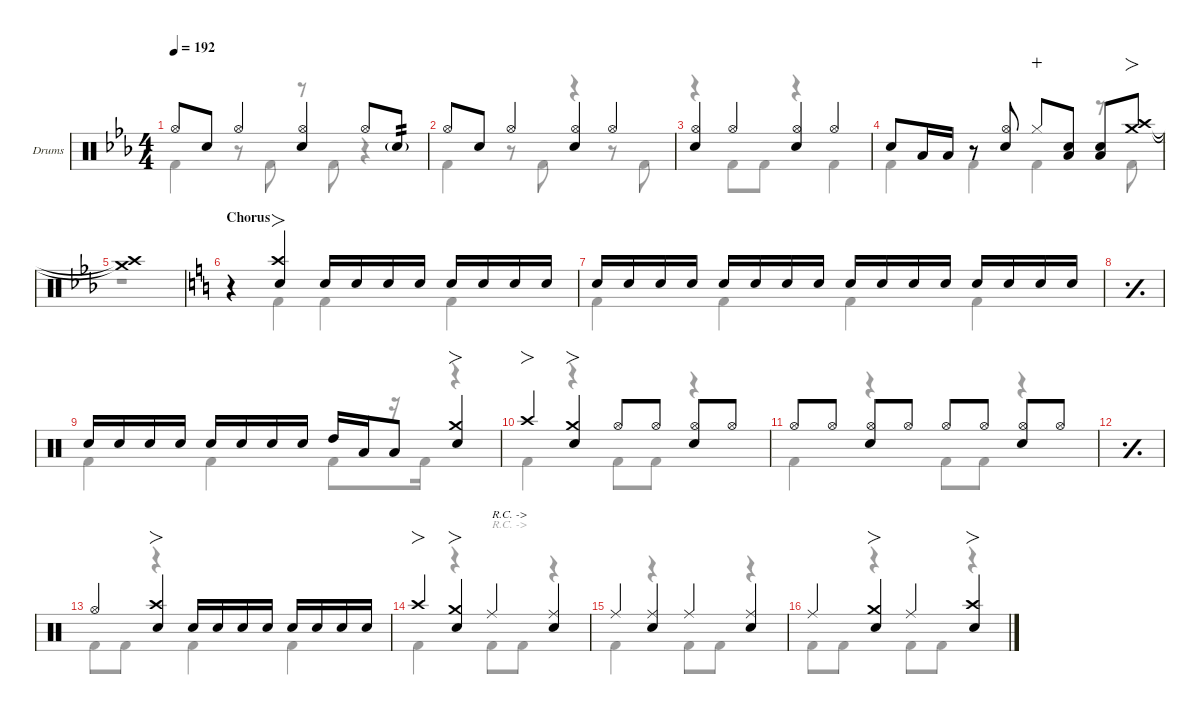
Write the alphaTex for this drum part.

\defaultSystemsLayout 4
\hideDynamics
\bracketExtendMode nobrackets
\firstSystemTrackNameOrientation horizontal
\track ("Drums" "Drums") {defaultSystemsLayout 4 instrument percussion}
\staff {score}
\articulation defaults
\voice
\ts (4 4)
\tempo 192
\clef neutral
\scale
0.244463
\ks eb "Hi-Hat (open)"{acc forcenatural}.8{dy f beam Up} "Snare (hit) 2"{acc forcenatural}.8{beam Up} "Hi-Hat (open)"{acc forcenatural}.4{beam Up}
("Hi-Hat (open)"{acc forcenatural} "Snare (hit) 2"{acc forcenatural}).4{beam Up} "Hi-Hat (open)"{acc forcenatural}.8{beam Up} "Snare (hit) 2"{g acc forcenatural}.8{tp 2 dy mp beam Up} |
\scale
0.237652 "Hi-Hat (open)"{acc forcenatural}.8{dy f beam Up} "Snare (hit) 2"{acc forcenatural}.8{beam Up} "Hi-Hat (open)"{acc forcenatural}.4{beam Up} ("Hi-Hat (open)"{acc forcenatural} "Snare (hit) 2"{acc forcenatural}).4{beam Up} "Hi-Hat (open)"{acc forcenatural}.4{beam Up} |
\scale
0.247447 ("Hi-Hat (open)"{acc forcenatural} "Snare (hit) 2"{acc forcenatural}).4{beam Up} "Hi-Hat (open)"{acc forcenatural}.4{beam Up} ("Hi-Hat (open)"{acc forcenatural} "Snare (hit) 2"{acc forcenatural}).4{beam Up} "Hi-Hat (open)"{acc forcenatural}.4{beam Up} |
\scale
0.5149 "Snare (hit) 2"{acc forcenatural}.8{beam Up} "Low Tom (hit)"{acc forcenatural}.16{beam Up} "Low Tom (hit)"{acc forcenatural}.16{beam Up beam split} r.8{beam Up beam split} ("Snare (hit) 2"{acc forcenatural} "Hi-Hat (open)"{acc forcenatural}).8{beam Up} "Hi-Hat (closed)"{acc forcenatural}.8{dy mp wahc beam Up} ("Snare (hit) 2"{acc forcenatural} "Low Tom (hit)"{acc forcenatural}).8{dy f beam Up} ("Low Tom (hit)"{acc forcenatural} "Snare (hit) 2"{acc forcenatural}).8{beam Up} ("Crash high (hit)"{acc forcenatural} "Crash medium (hit)"{acc forcenatural}).8{fo beam Up} |
\scale
0.4851 ("Crash high (hit)"{t acc forcenatural} "Crash medium (hit)"{t acc forcenatural}).1{beam Up} |
\section ("" "Chorus")
\scale
0.270437
\ks c
r.4{beam Up} ("Crash high (hit)" "Snare (hit) 2").4{fo beam Up} "Snare (hit) 2".16{beam Up} "Snare (hit) 2".16{dy mp beam Up} "Snare (hit) 2".16{dy mf beam Up} "Snare (hit) 2".16{dy mp beam Up beam split} "Snare (hit) 2".16{dy f beam Up} "Snare (hit) 2".16{dy mp beam Up} "Snare (hit) 2".16{dy mf beam Up} "Snare (hit) 2".16{dy mp beam Up beam split} |
\scale
0.244463 "Snare (hit) 2".16{dy f beam Up} "Snare (hit) 2".16{dy mp beam Up} "Snare (hit) 2".16{dy mf beam Up} "Snare (hit) 2".16{dy mp beam Up beam split} "Snare (hit) 2".16{dy f beam Up} "Snare (hit) 2".16{dy mp beam Up} "Snare (hit) 2".16{dy mf beam Up} "Snare (hit) 2".16{dy mp beam Up beam split} "Snare (hit) 2".16{dy f beam Up} "Snare (hit) 2".16{dy mp beam Up} "Snare (hit) 2".16{dy mf beam Up} "Snare (hit) 2".16{dy mp beam Up beam split} "Snare (hit) 2".16{dy f beam Up} "Snare (hit) 2".16{dy mp beam Up} "Snare (hit) 2".16{dy mf beam Up} "Snare (hit) 2".16{dy mp beam Up beam split} |
\simile simple
\scale
0.240968 |
\simile none
\scale
0.244132 "Snare (hit) 2".16{dy f beam Up} "Snare (hit) 2".16{dy mp beam Up} "Snare (hit) 2".16{dy mf beam Up} "Snare (hit) 2".16{dy mp beam Up beam split} "Snare (hit) 2".16{dy f beam Up} "Snare (hit) 2".16{dy mp beam Up} "Snare (hit) 2".16{dy mf beam Up} "Snare (hit) 2".16{dy mp beam Up beam split} "High Tom (hit)".16{dy f beam Up} "Low Tom (hit)".16{beam Up} "Low Tom (hit)".8{beam Up} ("Snare (hit) 2" "Crash medium (hit)").4{fo beam Up} |
\scale
0.270437 "Crash high (hit)".4{fo beam Up} ("Crash medium (hit)" "Snare (hit) 2").4{fo beam Up} "Hi-Hat (open)".8{beam Up} "Hi-Hat (open)".8{dy mf beam Up} ("Hi-Hat (open)" "Snare (hit) 2").8{dy f beam Up} "Hi-Hat (open)".8{dy mf beam Up} |
\scale
0.244463 "Hi-Hat (open)".8{dy f beam Up} "Hi-Hat (open)".8{dy mf beam Up} ("Hi-Hat (open)" "Snare (hit) 2").8{dy f beam Up} "Hi-Hat (open)".8{dy mf beam Up} "Hi-Hat (open)".8{dy f beam Up} "Hi-Hat (open)".8{dy mf beam Up} ("Hi-Hat (open)" "Snare (hit) 2").8{dy f beam Up} "Hi-Hat (open)".8{dy mf beam Up} |
\simile simple
\scale
0.240968 |
\simile none
\scale
0.244132 "Hi-Hat (open)".4{dy f beam Up} ("Crash high (hit)" "Snare (hit) 2").4{fo beam Up} "Snare (hit) 2".16{beam Up} "Snare (hit) 2".16{dy mf beam Up} "Snare (hit) 2".16{dy f beam Up} "Snare (hit) 2".16{dy mf beam Up beam split} "Snare (hit) 2".16{dy f beam Up} "Snare (hit) 2".16{dy mf beam Up} "Snare (hit) 2".16{dy f beam Up} "Snare (hit) 2".16{dy mf beam Up} |
\scale
0.270437 "Crash high (hit)".4{fo dy f beam Up} ("Crash medium (hit)" "Snare (hit) 2").4{fo beam Up} "Ride (middle)".4{txt "R.C. ->" beam Up} ("Ride (middle)" "Snare (hit) 2").4{beam Up} |
\scale
0.244463 "Ride (middle)".4{beam Up} ("Ride (middle)" "Snare (hit) 2").4{beam Up} "Ride (middle)".4{beam Up} ("Ride (middle)" "Snare (hit) 2").4{beam Up} |
\scale
0.240968 "Ride (middle)".4{beam Up} ("Crash medium (hit)" "Snare (hit) 2").4{fo beam Up} "Ride (middle)".4{beam Up} ("Crash high (hit)" "Snare (hit) 2").4{fo beam Up}
\voice
\clef neutral
\ottava regular
\simile none
\scale
0.244463
\ks eb "Kick (hit) 2"{acc forcenatural}.4{dy f beam Down}
r.8{beam Down} "Kick (hit) 2"{acc forcenatural}.8{beam Down} r.8{beam Down} "Kick (hit) 2"{acc forcenatural}.8{beam Down} r.4{beam Down} |
\scale
0.237652 "Kick (hit) 2"{acc forcenatural}.4{beam Down} r.8{beam Down} "Kick (hit) 2"{acc forcenatural}.8{beam Down} r.4{beam Down} r.8{beam Down} "Kick (hit) 2"{acc forcenatural}.8{beam Down} |
\scale
0.247447 r.4{beam Down} "Kick (hit) 2"{acc forcenatural}.8{beam Down} "Kick (hit) 2"{acc forcenatural}.8{beam Down} r.4{beam Down} "Kick (hit) 2"{acc forcenatural}.4{beam Down} |
\scale
0.5149 "Kick (hit) 2"{acc forcenatural}.4{beam Down} "Kick (hit) 2"{acc forcenatural}.4{beam Down} "Kick (hit) 2"{acc forcenatural}.4{beam Down} r.8{beam Down} "Kick (hit) 2"{acc forcenatural}.8{beam Down} |
\scale
0.4851 r.1{beam Down} |
\scale
0.270437
\ks c
r.4{beam Down} "Kick (hit) 2".4{beam Down} "Kick (hit) 2".4{beam Down} "Kick (hit) 2".4{beam Down} |
\scale
0.244463 "Kick (hit) 2".4{beam Down} "Kick (hit) 2".4{beam Down} "Kick (hit) 2".4{beam Down} "Kick (hit) 2".4{beam Down} |
\simile simple
\scale
0.240968 |
\simile none
\scale
0.244132 "Kick (hit) 2".4{beam Down} "Kick (hit) 2".4{beam Down} "Kick (hit) 2".8{beam Down} r.16{beam Down} "Kick (hit) 2".16{beam Down} r.4{beam Down} |
\scale
0.270437 "Kick (hit) 2".4{beam Down} r.4{beam Down} "Kick (hit) 2".8{beam Down} "Kick (hit) 2".8{beam Down} r.4{beam Down} |
\scale
0.244463 "Kick (hit) 2".4{beam Down} r.4{beam Down} "Kick (hit) 2".8{beam Down} "Kick (hit) 2".8{beam Down} r.4{beam Down} |
\simile simple
\scale
0.240968 |
\simile none
\scale
0.244132 "Kick (hit) 2".8{beam Down} "Kick (hit) 2".8{beam Down} r.4{beam Down} "Kick (hit) 2".4{beam Down} "Kick (hit) 2".4{beam Down} |
\scale
0.270437 "Kick (hit) 2".4{beam Down} r.4{beam Down} "Kick (hit) 2".8{txt "R.C. ->" beam Down} "Kick (hit) 2".8{beam Down} r.4{beam Down} |
\scale
0.244463 "Kick (hit) 2".4{beam Down} r.4{beam Down} "Kick (hit) 2".8{beam Down} "Kick (hit) 2".8{beam Down} r.4{beam Down} |
\scale
0.240968 "Kick (hit) 2".8{beam Down} "Kick (hit) 2".8{beam Down} r.4{beam Down} "Kick (hit) 2".8{beam Down} "Kick (hit) 2".8{beam Down} r.4{beam Down}
